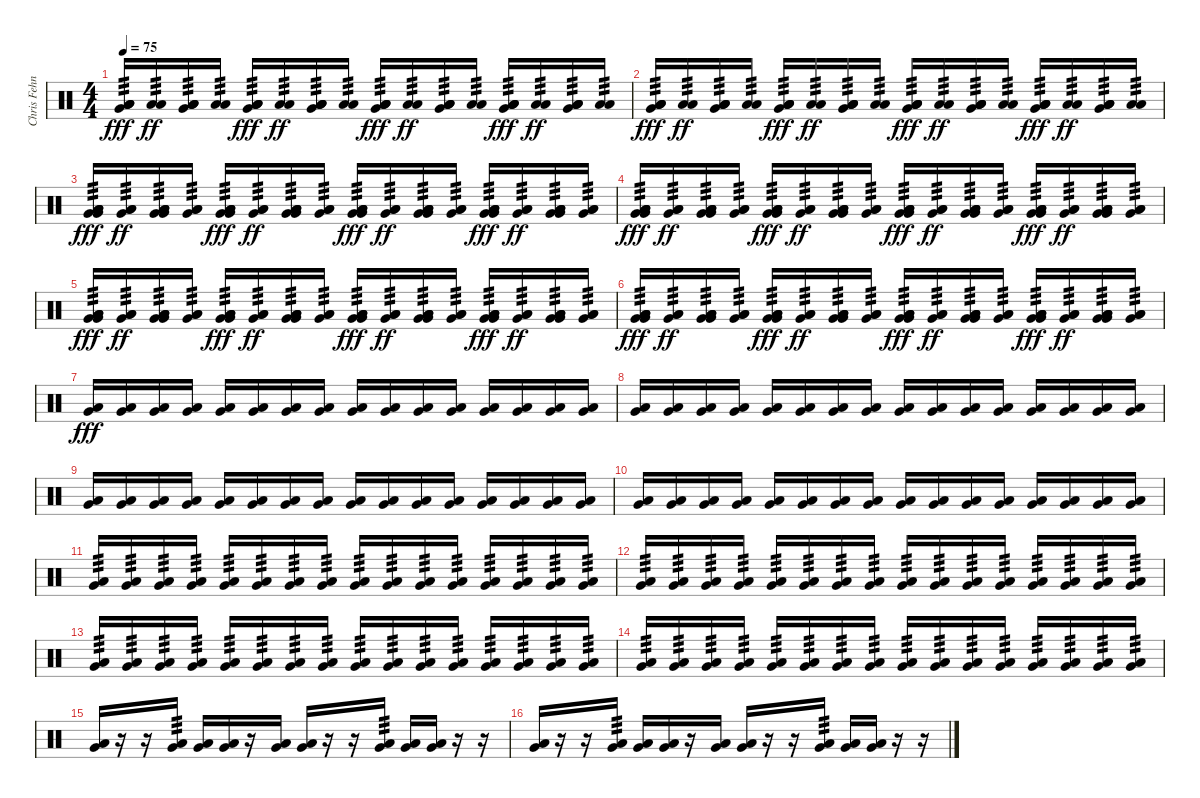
\track ("Chris Fehn" "Chris Fehn") {instrument percussion}
\staff {score}
\articulation defaults
\ts (4 4)
\tempo 75
\clef neutral
\ks c
("Low Floor Tom (hit)" "Low Floor Tom (hit)" "Very Low Tom (hit)" "Low Floor Tom (hit)").16{tp 3 dy fff} ("Low Floor Tom (hit)" "Low Floor Tom (hit)").16{tp 3 dy ff} ("Low Floor Tom (hit)" "Low Floor Tom (hit)" "Very Low Tom (hit)" "Low Floor Tom (hit)").16{tp 3} ("Low Floor Tom (hit)" "Low Floor Tom (hit)").16{tp 3} ("Low Floor Tom (hit)" "Low Floor Tom (hit)" "Very Low Tom (hit)" "Low Floor Tom (hit)").16{tp 3 dy fff} ("Low Floor Tom (hit)" "Low Floor Tom (hit)").16{tp 3 dy ff} ("Low Floor Tom (hit)" "Low Floor Tom (hit)" "Very Low Tom (hit)" "Low Floor Tom (hit)").16{tp 3} ("Low Floor Tom (hit)" "Low Floor Tom (hit)").16{tp 3} ("Low Floor Tom (hit)" "Low Floor Tom (hit)" "Very Low Tom (hit)" "Low Floor Tom (hit)").16{tp 3 dy fff} ("Low Floor Tom (hit)" "Low Floor Tom (hit)").16{tp 3 dy ff} ("Low Floor Tom (hit)" "Low Floor Tom (hit)" "Very Low Tom (hit)" "Low Floor Tom (hit)").16{tp 3} ("Low Floor Tom (hit)" "Low Floor Tom (hit)").16{tp 3} ("Low Floor Tom (hit)" "Low Floor Tom (hit)" "Very Low Tom (hit)" "Low Floor Tom (hit)").16{tp 3 dy fff} ("Low Floor Tom (hit)" "Low Floor Tom (hit)").16{tp 3 dy ff} ("Low Floor Tom (hit)" "Low Floor Tom (hit)" "Very Low Tom (hit)" "Low Floor Tom (hit)").16{tp 3} ("Low Floor Tom (hit)" "Low Floor Tom (hit)").16{tp 3} |
("Low Floor Tom (hit)" "Low Floor Tom (hit)" "Very Low Tom (hit)" "Low Floor Tom (hit)").16{tp 3 dy fff} ("Low Floor Tom (hit)" "Low Floor Tom (hit)").16{tp 3 dy ff} ("Low Floor Tom (hit)" "Low Floor Tom (hit)" "Very Low Tom (hit)" "Low Floor Tom (hit)").16{tp 3} ("Low Floor Tom (hit)" "Low Floor Tom (hit)").16{tp 3} ("Low Floor Tom (hit)" "Low Floor Tom (hit)" "Very Low Tom (hit)" "Low Floor Tom (hit)").16{tp 3 dy fff} ("Low Floor Tom (hit)" "Low Floor Tom (hit)").16{tp 3 dy ff} ("Low Floor Tom (hit)" "Low Floor Tom (hit)" "Very Low Tom (hit)" "Low Floor Tom (hit)").16{tp 3} ("Low Floor Tom (hit)" "Low Floor Tom (hit)").16{tp 3} ("Low Floor Tom (hit)" "Low Floor Tom (hit)" "Very Low Tom (hit)" "Low Floor Tom (hit)").16{tp 3 dy fff} ("Low Floor Tom (hit)" "Low Floor Tom (hit)").16{tp 3 dy ff} ("Low Floor Tom (hit)" "Low Floor Tom (hit)" "Very Low Tom (hit)" "Low Floor Tom (hit)").16{tp 3} ("Low Floor Tom (hit)" "Low Floor Tom (hit)").16{tp 3} ("Low Floor Tom (hit)" "Low Floor Tom (hit)" "Very Low Tom (hit)" "Low Floor Tom (hit)").16{tp 3 dy fff} ("Low Floor Tom (hit)" "Low Floor Tom (hit)").16{tp 3 dy ff} ("Low Floor Tom (hit)" "Low Floor Tom (hit)" "Very Low Tom (hit)" "Low Floor Tom (hit)").16{tp 3} ("Low Floor Tom (hit)" "Low Floor Tom (hit)").16{tp 3} |
("Very Low Tom (hit)" "Low Floor Tom (hit)" "Low Floor Tom (hit)" "Very Low Tom (hit)" "Low Floor Tom (hit)").16{tp 3 dy fff} ("Very Low Tom (hit)" "Low Floor Tom (hit)" "Low Floor Tom (hit)").16{tp 3 dy ff} ("Very Low Tom (hit)" "Low Floor Tom (hit)" "Low Floor Tom (hit)" "Very Low Tom (hit)" "Low Floor Tom (hit)").16{tp 3} ("Very Low Tom (hit)" "Low Floor Tom (hit)" "Low Floor Tom (hit)").16{tp 3} ("Very Low Tom (hit)" "Low Floor Tom (hit)" "Low Floor Tom (hit)" "Very Low Tom (hit)" "Low Floor Tom (hit)").16{tp 3 dy fff} ("Very Low Tom (hit)" "Low Floor Tom (hit)" "Low Floor Tom (hit)").16{tp 3 dy ff} ("Very Low Tom (hit)" "Low Floor Tom (hit)" "Low Floor Tom (hit)" "Very Low Tom (hit)" "Low Floor Tom (hit)").16{tp 3} ("Very Low Tom (hit)" "Low Floor Tom (hit)" "Low Floor Tom (hit)").16{tp 3} ("Very Low Tom (hit)" "Low Floor Tom (hit)" "Low Floor Tom (hit)" "Very Low Tom (hit)" "Low Floor Tom (hit)").16{tp 3 dy fff} ("Very Low Tom (hit)" "Low Floor Tom (hit)" "Low Floor Tom (hit)").16{tp 3 dy ff} ("Very Low Tom (hit)" "Low Floor Tom (hit)" "Low Floor Tom (hit)" "Very Low Tom (hit)" "Low Floor Tom (hit)").16{tp 3} ("Very Low Tom (hit)" "Low Floor Tom (hit)" "Low Floor Tom (hit)").16{tp 3} ("Very Low Tom (hit)" "Low Floor Tom (hit)" "Low Floor Tom (hit)" "Very Low Tom (hit)" "Low Floor Tom (hit)").16{tp 3 dy fff} ("Very Low Tom (hit)" "Low Floor Tom (hit)" "Low Floor Tom (hit)").16{tp 3 dy ff} ("Very Low Tom (hit)" "Low Floor Tom (hit)" "Low Floor Tom (hit)" "Very Low Tom (hit)" "Low Floor Tom (hit)").16{tp 3} ("Very Low Tom (hit)" "Low Floor Tom (hit)" "Low Floor Tom (hit)").16{tp 3} |
("Very Low Tom (hit)" "Low Floor Tom (hit)" "Low Floor Tom (hit)" "Very Low Tom (hit)" "Low Floor Tom (hit)").16{tp 3 dy fff} ("Very Low Tom (hit)" "Low Floor Tom (hit)" "Low Floor Tom (hit)").16{tp 3 dy ff} ("Very Low Tom (hit)" "Low Floor Tom (hit)" "Low Floor Tom (hit)" "Very Low Tom (hit)" "Low Floor Tom (hit)").16{tp 3} ("Very Low Tom (hit)" "Low Floor Tom (hit)" "Low Floor Tom (hit)").16{tp 3} ("Very Low Tom (hit)" "Low Floor Tom (hit)" "Low Floor Tom (hit)" "Very Low Tom (hit)" "Low Floor Tom (hit)").16{tp 3 dy fff} ("Very Low Tom (hit)" "Low Floor Tom (hit)" "Low Floor Tom (hit)").16{tp 3 dy ff} ("Very Low Tom (hit)" "Low Floor Tom (hit)" "Low Floor Tom (hit)" "Very Low Tom (hit)" "Low Floor Tom (hit)").16{tp 3} ("Very Low Tom (hit)" "Low Floor Tom (hit)" "Low Floor Tom (hit)").16{tp 3} ("Very Low Tom (hit)" "Low Floor Tom (hit)" "Low Floor Tom (hit)" "Very Low Tom (hit)" "Low Floor Tom (hit)").16{tp 3 dy fff} ("Very Low Tom (hit)" "Low Floor Tom (hit)" "Low Floor Tom (hit)").16{tp 3 dy ff} ("Very Low Tom (hit)" "Low Floor Tom (hit)" "Low Floor Tom (hit)" "Very Low Tom (hit)" "Low Floor Tom (hit)").16{tp 3} ("Very Low Tom (hit)" "Low Floor Tom (hit)" "Low Floor Tom (hit)").16{tp 3} ("Very Low Tom (hit)" "Low Floor Tom (hit)" "Low Floor Tom (hit)" "Very Low Tom (hit)" "Low Floor Tom (hit)").16{tp 3 dy fff} ("Very Low Tom (hit)" "Low Floor Tom (hit)" "Low Floor Tom (hit)").16{tp 3 dy ff} ("Very Low Tom (hit)" "Low Floor Tom (hit)" "Low Floor Tom (hit)" "Very Low Tom (hit)" "Low Floor Tom (hit)").16{tp 3} ("Very Low Tom (hit)" "Low Floor Tom (hit)" "Low Floor Tom (hit)").16{tp 3} |
("Very Low Tom (hit)" "Low Floor Tom (hit)" "Low Floor Tom (hit)" "Very Low Tom (hit)" "Low Floor Tom (hit)").16{tp 3 dy fff} ("Very Low Tom (hit)" "Low Floor Tom (hit)" "Low Floor Tom (hit)").16{tp 3 dy ff} ("Very Low Tom (hit)" "Low Floor Tom (hit)" "Low Floor Tom (hit)" "Very Low Tom (hit)" "Low Floor Tom (hit)").16{tp 3} ("Very Low Tom (hit)" "Low Floor Tom (hit)" "Low Floor Tom (hit)").16{tp 3} ("Very Low Tom (hit)" "Low Floor Tom (hit)" "Low Floor Tom (hit)" "Very Low Tom (hit)" "Low Floor Tom (hit)").16{tp 3 dy fff} ("Very Low Tom (hit)" "Low Floor Tom (hit)" "Low Floor Tom (hit)").16{tp 3 dy ff} ("Very Low Tom (hit)" "Low Floor Tom (hit)" "Low Floor Tom (hit)" "Very Low Tom (hit)" "Low Floor Tom (hit)").16{tp 3} ("Very Low Tom (hit)" "Low Floor Tom (hit)" "Low Floor Tom (hit)").16{tp 3} ("Very Low Tom (hit)" "Low Floor Tom (hit)" "Low Floor Tom (hit)" "Very Low Tom (hit)" "Low Floor Tom (hit)").16{tp 3 dy fff} ("Very Low Tom (hit)" "Low Floor Tom (hit)" "Low Floor Tom (hit)").16{tp 3 dy ff} ("Very Low Tom (hit)" "Low Floor Tom (hit)" "Low Floor Tom (hit)" "Very Low Tom (hit)" "Low Floor Tom (hit)").16{tp 3} ("Very Low Tom (hit)" "Low Floor Tom (hit)" "Low Floor Tom (hit)").16{tp 3} ("Very Low Tom (hit)" "Low Floor Tom (hit)" "Low Floor Tom (hit)" "Very Low Tom (hit)" "Low Floor Tom (hit)").16{tp 3 dy fff} ("Very Low Tom (hit)" "Low Floor Tom (hit)" "Low Floor Tom (hit)").16{tp 3 dy ff} ("Very Low Tom (hit)" "Low Floor Tom (hit)" "Low Floor Tom (hit)" "Very Low Tom (hit)" "Low Floor Tom (hit)").16{tp 3} ("Very Low Tom (hit)" "Low Floor Tom (hit)" "Low Floor Tom (hit)").16{tp 3} |
("Very Low Tom (hit)" "Low Floor Tom (hit)" "Low Floor Tom (hit)" "Very Low Tom (hit)" "Low Floor Tom (hit)").16{tp 3 dy fff} ("Very Low Tom (hit)" "Low Floor Tom (hit)" "Low Floor Tom (hit)").16{tp 3 dy ff} ("Very Low Tom (hit)" "Low Floor Tom (hit)" "Low Floor Tom (hit)" "Very Low Tom (hit)" "Low Floor Tom (hit)").16{tp 3} ("Very Low Tom (hit)" "Low Floor Tom (hit)" "Low Floor Tom (hit)").16{tp 3} ("Very Low Tom (hit)" "Low Floor Tom (hit)" "Low Floor Tom (hit)" "Very Low Tom (hit)" "Low Floor Tom (hit)").16{tp 3 dy fff} ("Very Low Tom (hit)" "Low Floor Tom (hit)" "Low Floor Tom (hit)").16{tp 3 dy ff} ("Very Low Tom (hit)" "Low Floor Tom (hit)" "Low Floor Tom (hit)" "Very Low Tom (hit)" "Low Floor Tom (hit)").16{tp 3} ("Very Low Tom (hit)" "Low Floor Tom (hit)" "Low Floor Tom (hit)").16{tp 3} ("Very Low Tom (hit)" "Low Floor Tom (hit)" "Low Floor Tom (hit)" "Very Low Tom (hit)" "Low Floor Tom (hit)").16{tp 3 dy fff} ("Very Low Tom (hit)" "Low Floor Tom (hit)" "Low Floor Tom (hit)").16{tp 3 dy ff} ("Very Low Tom (hit)" "Low Floor Tom (hit)" "Low Floor Tom (hit)" "Very Low Tom (hit)" "Low Floor Tom (hit)").16{tp 3} ("Very Low Tom (hit)" "Low Floor Tom (hit)" "Low Floor Tom (hit)").16{tp 3} ("Very Low Tom (hit)" "Low Floor Tom (hit)" "Low Floor Tom (hit)" "Very Low Tom (hit)" "Low Floor Tom (hit)").16{tp 3 dy fff} ("Very Low Tom (hit)" "Low Floor Tom (hit)" "Low Floor Tom (hit)").16{tp 3 dy ff} ("Very Low Tom (hit)" "Low Floor Tom (hit)" "Low Floor Tom (hit)" "Very Low Tom (hit)" "Low Floor Tom (hit)").16{tp 3} ("Very Low Tom (hit)" "Low Floor Tom (hit)" "Low Floor Tom (hit)").16{tp 3} |
("Very Low Tom (hit)" "Low Floor Tom (hit)").16{dy fff} ("Very Low Tom (hit)" "Low Floor Tom (hit)").16 ("Very Low Tom (hit)" "Low Floor Tom (hit)").16 ("Very Low Tom (hit)" "Low Floor Tom (hit)").16 ("Very Low Tom (hit)" "Low Floor Tom (hit)").16 ("Very Low Tom (hit)" "Low Floor Tom (hit)").16 ("Very Low Tom (hit)" "Low Floor Tom (hit)").16 ("Very Low Tom (hit)" "Low Floor Tom (hit)").16 ("Very Low Tom (hit)" "Low Floor Tom (hit)").16 ("Very Low Tom (hit)" "Low Floor Tom (hit)").16 ("Very Low Tom (hit)" "Low Floor Tom (hit)").16 ("Very Low Tom (hit)" "Low Floor Tom (hit)").16 ("Very Low Tom (hit)" "Low Floor Tom (hit)").16 ("Very Low Tom (hit)" "Low Floor Tom (hit)").16 ("Very Low Tom (hit)" "Low Floor Tom (hit)").16 ("Very Low Tom (hit)" "Low Floor Tom (hit)").16 |
("Very Low Tom (hit)" "Low Floor Tom (hit)").16 ("Very Low Tom (hit)" "Low Floor Tom (hit)").16 ("Very Low Tom (hit)" "Low Floor Tom (hit)").16 ("Very Low Tom (hit)" "Low Floor Tom (hit)").16 ("Very Low Tom (hit)" "Low Floor Tom (hit)").16 ("Very Low Tom (hit)" "Low Floor Tom (hit)").16 ("Very Low Tom (hit)" "Low Floor Tom (hit)").16 ("Very Low Tom (hit)" "Low Floor Tom (hit)").16 ("Very Low Tom (hit)" "Low Floor Tom (hit)").16 ("Very Low Tom (hit)" "Low Floor Tom (hit)").16 ("Very Low Tom (hit)" "Low Floor Tom (hit)").16 ("Very Low Tom (hit)" "Low Floor Tom (hit)").16 ("Very Low Tom (hit)" "Low Floor Tom (hit)").16 ("Very Low Tom (hit)" "Low Floor Tom (hit)").16 ("Very Low Tom (hit)" "Low Floor Tom (hit)").16 ("Very Low Tom (hit)" "Low Floor Tom (hit)").16 |
("Very Low Tom (hit)" "Low Floor Tom (hit)").16 ("Very Low Tom (hit)" "Low Floor Tom (hit)").16 ("Very Low Tom (hit)" "Low Floor Tom (hit)").16 ("Very Low Tom (hit)" "Low Floor Tom (hit)").16 ("Very Low Tom (hit)" "Low Floor Tom (hit)").16 ("Very Low Tom (hit)" "Low Floor Tom (hit)").16 ("Very Low Tom (hit)" "Low Floor Tom (hit)").16 ("Very Low Tom (hit)" "Low Floor Tom (hit)").16 ("Very Low Tom (hit)" "Low Floor Tom (hit)").16 ("Very Low Tom (hit)" "Low Floor Tom (hit)").16 ("Very Low Tom (hit)" "Low Floor Tom (hit)").16 ("Very Low Tom (hit)" "Low Floor Tom (hit)").16 ("Very Low Tom (hit)" "Low Floor Tom (hit)").16 ("Very Low Tom (hit)" "Low Floor Tom (hit)").16 ("Very Low Tom (hit)" "Low Floor Tom (hit)").16 ("Very Low Tom (hit)" "Low Floor Tom (hit)").16 |
("Very Low Tom (hit)" "Low Floor Tom (hit)").16 ("Very Low Tom (hit)" "Low Floor Tom (hit)").16 ("Very Low Tom (hit)" "Low Floor Tom (hit)").16 ("Very Low Tom (hit)" "Low Floor Tom (hit)").16 ("Very Low Tom (hit)" "Low Floor Tom (hit)").16 ("Very Low Tom (hit)" "Low Floor Tom (hit)").16 ("Very Low Tom (hit)" "Low Floor Tom (hit)").16 ("Very Low Tom (hit)" "Low Floor Tom (hit)").16 ("Very Low Tom (hit)" "Low Floor Tom (hit)").16 ("Very Low Tom (hit)" "Low Floor Tom (hit)").16 ("Very Low Tom (hit)" "Low Floor Tom (hit)").16 ("Very Low Tom (hit)" "Low Floor Tom (hit)").16 ("Very Low Tom (hit)" "Low Floor Tom (hit)").16 ("Very Low Tom (hit)" "Low Floor Tom (hit)").16 ("Very Low Tom (hit)" "Low Floor Tom (hit)").16 ("Very Low Tom (hit)" "Low Floor Tom (hit)").16 |
("Very Low Tom (hit)" "Low Floor Tom (hit)").16{tp 3} ("Very Low Tom (hit)" "Low Floor Tom (hit)").16{tp 3} ("Very Low Tom (hit)" "Low Floor Tom (hit)").16{tp 3} ("Very Low Tom (hit)" "Low Floor Tom (hit)").16{tp 3} ("Very Low Tom (hit)" "Low Floor Tom (hit)").16{tp 3} ("Very Low Tom (hit)" "Low Floor Tom (hit)").16{tp 3} ("Very Low Tom (hit)" "Low Floor Tom (hit)").16{tp 3} ("Very Low Tom (hit)" "Low Floor Tom (hit)").16{tp 3} ("Very Low Tom (hit)" "Low Floor Tom (hit)").16{tp 3} ("Very Low Tom (hit)" "Low Floor Tom (hit)").16{tp 3} ("Very Low Tom (hit)" "Low Floor Tom (hit)").16{tp 3} ("Very Low Tom (hit)" "Low Floor Tom (hit)").16{tp 3} ("Very Low Tom (hit)" "Low Floor Tom (hit)").16{tp 3} ("Very Low Tom (hit)" "Low Floor Tom (hit)").16{tp 3} ("Very Low Tom (hit)" "Low Floor Tom (hit)").16{tp 3} ("Very Low Tom (hit)" "Low Floor Tom (hit)").16{tp 3} |
("Very Low Tom (hit)" "Low Floor Tom (hit)").16{tp 3} ("Very Low Tom (hit)" "Low Floor Tom (hit)").16{tp 3} ("Very Low Tom (hit)" "Low Floor Tom (hit)").16{tp 3} ("Very Low Tom (hit)" "Low Floor Tom (hit)").16{tp 3} ("Very Low Tom (hit)" "Low Floor Tom (hit)").16{tp 3} ("Very Low Tom (hit)" "Low Floor Tom (hit)").16{tp 3} ("Very Low Tom (hit)" "Low Floor Tom (hit)").16{tp 3} ("Very Low Tom (hit)" "Low Floor Tom (hit)").16{tp 3} ("Very Low Tom (hit)" "Low Floor Tom (hit)").16{tp 3} ("Very Low Tom (hit)" "Low Floor Tom (hit)").16{tp 3} ("Very Low Tom (hit)" "Low Floor Tom (hit)").16{tp 3} ("Very Low Tom (hit)" "Low Floor Tom (hit)").16{tp 3} ("Very Low Tom (hit)" "Low Floor Tom (hit)").16{tp 3} ("Very Low Tom (hit)" "Low Floor Tom (hit)").16{tp 3} ("Very Low Tom (hit)" "Low Floor Tom (hit)").16{tp 3} ("Very Low Tom (hit)" "Low Floor Tom (hit)").16{tp 3} |
("Very Low Tom (hit)" "Low Floor Tom (hit)").16{tp 3} ("Very Low Tom (hit)" "Low Floor Tom (hit)").16{tp 3} ("Very Low Tom (hit)" "Low Floor Tom (hit)").16{tp 3} ("Very Low Tom (hit)" "Low Floor Tom (hit)").16{tp 3} ("Very Low Tom (hit)" "Low Floor Tom (hit)").16{tp 3} ("Very Low Tom (hit)" "Low Floor Tom (hit)").16{tp 3} ("Very Low Tom (hit)" "Low Floor Tom (hit)").16{tp 3} ("Very Low Tom (hit)" "Low Floor Tom (hit)").16{tp 3} ("Very Low Tom (hit)" "Low Floor Tom (hit)").16{tp 3} ("Very Low Tom (hit)" "Low Floor Tom (hit)").16{tp 3} ("Very Low Tom (hit)" "Low Floor Tom (hit)").16{tp 3} ("Very Low Tom (hit)" "Low Floor Tom (hit)").16{tp 3} ("Very Low Tom (hit)" "Low Floor Tom (hit)").16{tp 3} ("Very Low Tom (hit)" "Low Floor Tom (hit)").16{tp 3} ("Very Low Tom (hit)" "Low Floor Tom (hit)").16{tp 3} ("Very Low Tom (hit)" "Low Floor Tom (hit)").16{tp 3} |
("Very Low Tom (hit)" "Low Floor Tom (hit)").16{tp 3} ("Very Low Tom (hit)" "Low Floor Tom (hit)").16{tp 3} ("Very Low Tom (hit)" "Low Floor Tom (hit)").16{tp 3} ("Very Low Tom (hit)" "Low Floor Tom (hit)").16{tp 3} ("Very Low Tom (hit)" "Low Floor Tom (hit)").16{tp 3} ("Very Low Tom (hit)" "Low Floor Tom (hit)").16{tp 3} ("Very Low Tom (hit)" "Low Floor Tom (hit)").16{tp 3} ("Very Low Tom (hit)" "Low Floor Tom (hit)").16{tp 3} ("Very Low Tom (hit)" "Low Floor Tom (hit)").16{tp 3} ("Very Low Tom (hit)" "Low Floor Tom (hit)").16{tp 3} ("Very Low Tom (hit)" "Low Floor Tom (hit)").16{tp 3} ("Very Low Tom (hit)" "Low Floor Tom (hit)").16{tp 3} ("Very Low Tom (hit)" "Low Floor Tom (hit)").16{tp 3} ("Very Low Tom (hit)" "Low Floor Tom (hit)").16{tp 3} ("Very Low Tom (hit)" "Low Floor Tom (hit)").16{tp 3} ("Very Low Tom (hit)" "Low Floor Tom (hit)").16{tp 3} |
("Very Low Tom (hit)" "Low Floor Tom (hit)").16 r.16 r.16 ("Very Low Tom (hit)" "Low Floor Tom (hit)").16{tp 3} ("Very Low Tom (hit)" "Low Floor Tom (hit)").16 ("Very Low Tom (hit)" "Low Floor Tom (hit)").16 r.16 ("Very Low Tom (hit)" "Low Floor Tom (hit)").16 ("Very Low Tom (hit)" "Low Floor Tom (hit)").16 r.16 r.16 ("Very Low Tom (hit)" "Low Floor Tom (hit)").16{tp 3} ("Very Low Tom (hit)" "Low Floor Tom (hit)").16 ("Very Low Tom (hit)" "Low Floor Tom (hit)").16 r.16 r.16 |
("Very Low Tom (hit)" "Low Floor Tom (hit)").16 r.16 r.16 ("Very Low Tom (hit)" "Low Floor Tom (hit)").16{tp 3} ("Very Low Tom (hit)" "Low Floor Tom (hit)").16 ("Very Low Tom (hit)" "Low Floor Tom (hit)").16 r.16 ("Very Low Tom (hit)" "Low Floor Tom (hit)").16 ("Very Low Tom (hit)" "Low Floor Tom (hit)").16 r.16 r.16 ("Very Low Tom (hit)" "Low Floor Tom (hit)").16{tp 3} ("Very Low Tom (hit)" "Low Floor Tom (hit)").16 ("Very Low Tom (hit)" "Low Floor Tom (hit)").16 r.16 r.16
